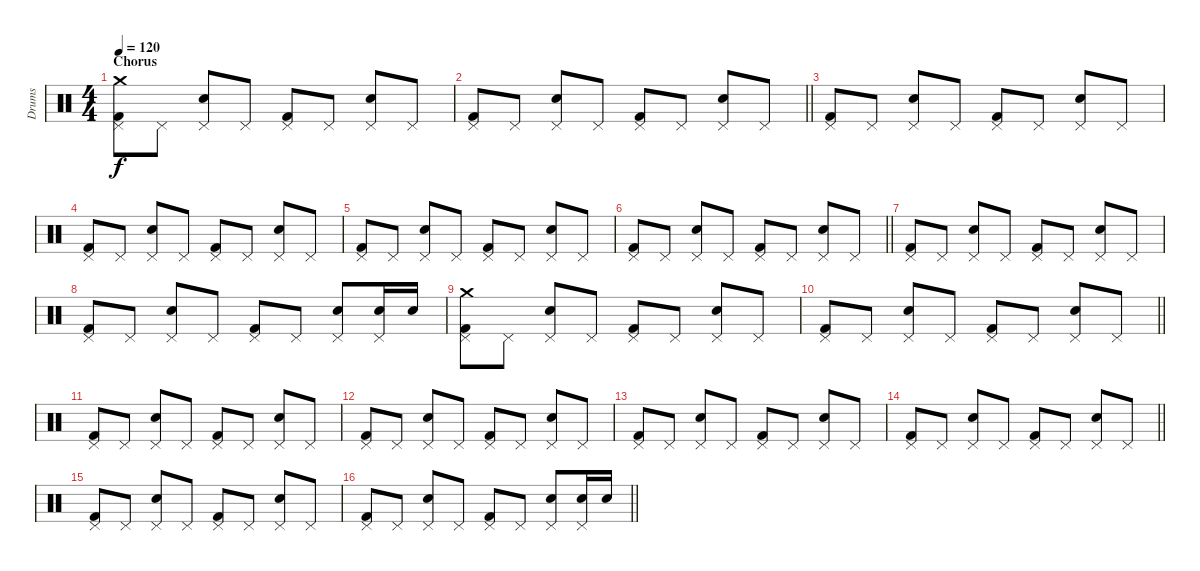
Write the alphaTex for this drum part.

\track ("Drums" "Drums") {instrument percussion}
\staff {score}
\articulation defaults
\ts (4 4)
\section ("" "Chorus")
\tempo 120
\clef neutral
\ks c
("Kick (hit) 2" "Pedal Hi-Hat (hit)" "Crash medium (hit)").8{dy f} "Pedal Hi-Hat (hit)".8 ("Snare (hit) 2" "Pedal Hi-Hat (hit)").8 "Pedal Hi-Hat (hit)".8 ("Kick (hit) 2" "Pedal Hi-Hat (hit)").8 "Pedal Hi-Hat (hit)".8 ("Snare (hit) 2" "Pedal Hi-Hat (hit)").8 "Pedal Hi-Hat (hit)".8 |
\barLineRight lightlight
("Kick (hit) 2" "Pedal Hi-Hat (hit)").8 "Pedal Hi-Hat (hit)".8 ("Snare (hit) 2" "Pedal Hi-Hat (hit)").8 "Pedal Hi-Hat (hit)".8 ("Kick (hit) 2" "Pedal Hi-Hat (hit)").8 "Pedal Hi-Hat (hit)".8 ("Snare (hit) 2" "Pedal Hi-Hat (hit)").8 "Pedal Hi-Hat (hit)".8 |
("Kick (hit) 2" "Pedal Hi-Hat (hit)").8 "Pedal Hi-Hat (hit)".8 ("Snare (hit) 2" "Pedal Hi-Hat (hit)").8 "Pedal Hi-Hat (hit)".8 ("Kick (hit) 2" "Pedal Hi-Hat (hit)").8 "Pedal Hi-Hat (hit)".8 ("Snare (hit) 2" "Pedal Hi-Hat (hit)").8 "Pedal Hi-Hat (hit)".8 |
("Kick (hit) 2" "Pedal Hi-Hat (hit)").8 "Pedal Hi-Hat (hit)".8 ("Snare (hit) 2" "Pedal Hi-Hat (hit)").8 "Pedal Hi-Hat (hit)".8 ("Kick (hit) 2" "Pedal Hi-Hat (hit)").8 "Pedal Hi-Hat (hit)".8 ("Snare (hit) 2" "Pedal Hi-Hat (hit)").8 "Pedal Hi-Hat (hit)".8 |
("Kick (hit) 2" "Pedal Hi-Hat (hit)").8 "Pedal Hi-Hat (hit)".8 ("Snare (hit) 2" "Pedal Hi-Hat (hit)").8 "Pedal Hi-Hat (hit)".8 ("Kick (hit) 2" "Pedal Hi-Hat (hit)").8 "Pedal Hi-Hat (hit)".8 ("Snare (hit) 2" "Pedal Hi-Hat (hit)").8 "Pedal Hi-Hat (hit)".8 |
\barLineRight lightlight
("Kick (hit) 2" "Pedal Hi-Hat (hit)").8 "Pedal Hi-Hat (hit)".8 ("Snare (hit) 2" "Pedal Hi-Hat (hit)").8 "Pedal Hi-Hat (hit)".8 ("Kick (hit) 2" "Pedal Hi-Hat (hit)").8 "Pedal Hi-Hat (hit)".8 ("Snare (hit) 2" "Pedal Hi-Hat (hit)").8 "Pedal Hi-Hat (hit)".8 |
("Kick (hit) 2" "Pedal Hi-Hat (hit)").8 "Pedal Hi-Hat (hit)".8 ("Snare (hit) 2" "Pedal Hi-Hat (hit)").8 "Pedal Hi-Hat (hit)".8 ("Kick (hit) 2" "Pedal Hi-Hat (hit)").8 "Pedal Hi-Hat (hit)".8 ("Snare (hit) 2" "Pedal Hi-Hat (hit)").8 "Pedal Hi-Hat (hit)".8 |
("Kick (hit) 2" "Pedal Hi-Hat (hit)").8 "Pedal Hi-Hat (hit)".8 ("Snare (hit) 2" "Pedal Hi-Hat (hit)").8 "Pedal Hi-Hat (hit)".8 ("Kick (hit) 2" "Pedal Hi-Hat (hit)").8 "Pedal Hi-Hat (hit)".8 ("Snare (hit) 2" "Pedal Hi-Hat (hit)").8 ("Snare (hit) 2" "Pedal Hi-Hat (hit)").16 "Snare (hit) 2".16 |
("Kick (hit) 2" "Pedal Hi-Hat (hit)" "Crash medium (hit)").8 "Pedal Hi-Hat (hit)".8 ("Snare (hit) 2" "Pedal Hi-Hat (hit)").8 "Pedal Hi-Hat (hit)".8 ("Kick (hit) 2" "Pedal Hi-Hat (hit)").8 "Pedal Hi-Hat (hit)".8 ("Snare (hit) 2" "Pedal Hi-Hat (hit)").8 "Pedal Hi-Hat (hit)".8 |
\barLineRight lightlight
("Kick (hit) 2" "Pedal Hi-Hat (hit)").8 "Pedal Hi-Hat (hit)".8 ("Snare (hit) 2" "Pedal Hi-Hat (hit)").8 "Pedal Hi-Hat (hit)".8 ("Kick (hit) 2" "Pedal Hi-Hat (hit)").8 "Pedal Hi-Hat (hit)".8 ("Snare (hit) 2" "Pedal Hi-Hat (hit)").8 "Pedal Hi-Hat (hit)".8 |
("Kick (hit) 2" "Pedal Hi-Hat (hit)").8 "Pedal Hi-Hat (hit)".8 ("Snare (hit) 2" "Pedal Hi-Hat (hit)").8 "Pedal Hi-Hat (hit)".8 ("Kick (hit) 2" "Pedal Hi-Hat (hit)").8 "Pedal Hi-Hat (hit)".8 ("Snare (hit) 2" "Pedal Hi-Hat (hit)").8 "Pedal Hi-Hat (hit)".8 |
("Kick (hit) 2" "Pedal Hi-Hat (hit)").8 "Pedal Hi-Hat (hit)".8 ("Snare (hit) 2" "Pedal Hi-Hat (hit)").8 "Pedal Hi-Hat (hit)".8 ("Kick (hit) 2" "Pedal Hi-Hat (hit)").8 "Pedal Hi-Hat (hit)".8 ("Snare (hit) 2" "Pedal Hi-Hat (hit)").8 "Pedal Hi-Hat (hit)".8 |
("Kick (hit) 2" "Pedal Hi-Hat (hit)").8 "Pedal Hi-Hat (hit)".8 ("Snare (hit) 2" "Pedal Hi-Hat (hit)").8 "Pedal Hi-Hat (hit)".8 ("Kick (hit) 2" "Pedal Hi-Hat (hit)").8 "Pedal Hi-Hat (hit)".8 ("Snare (hit) 2" "Pedal Hi-Hat (hit)").8 "Pedal Hi-Hat (hit)".8 |
\barLineRight lightlight
("Kick (hit) 2" "Pedal Hi-Hat (hit)").8 "Pedal Hi-Hat (hit)".8 ("Snare (hit) 2" "Pedal Hi-Hat (hit)").8 "Pedal Hi-Hat (hit)".8 ("Kick (hit) 2" "Pedal Hi-Hat (hit)").8 "Pedal Hi-Hat (hit)".8 ("Snare (hit) 2" "Pedal Hi-Hat (hit)").8 "Pedal Hi-Hat (hit)".8 |
("Kick (hit) 2" "Pedal Hi-Hat (hit)").8 "Pedal Hi-Hat (hit)".8 ("Snare (hit) 2" "Pedal Hi-Hat (hit)").8 "Pedal Hi-Hat (hit)".8 ("Kick (hit) 2" "Pedal Hi-Hat (hit)").8 "Pedal Hi-Hat (hit)".8 ("Snare (hit) 2" "Pedal Hi-Hat (hit)").8 "Pedal Hi-Hat (hit)".8 |
\barLineRight lightlight
("Kick (hit) 2" "Pedal Hi-Hat (hit)").8 "Pedal Hi-Hat (hit)".8 ("Snare (hit) 2" "Pedal Hi-Hat (hit)").8 "Pedal Hi-Hat (hit)".8 ("Kick (hit) 2" "Pedal Hi-Hat (hit)").8 "Pedal Hi-Hat (hit)".8 ("Snare (hit) 2" "Pedal Hi-Hat (hit)").8 ("Snare (hit) 2" "Pedal Hi-Hat (hit)").16 "Snare (hit) 2".16
